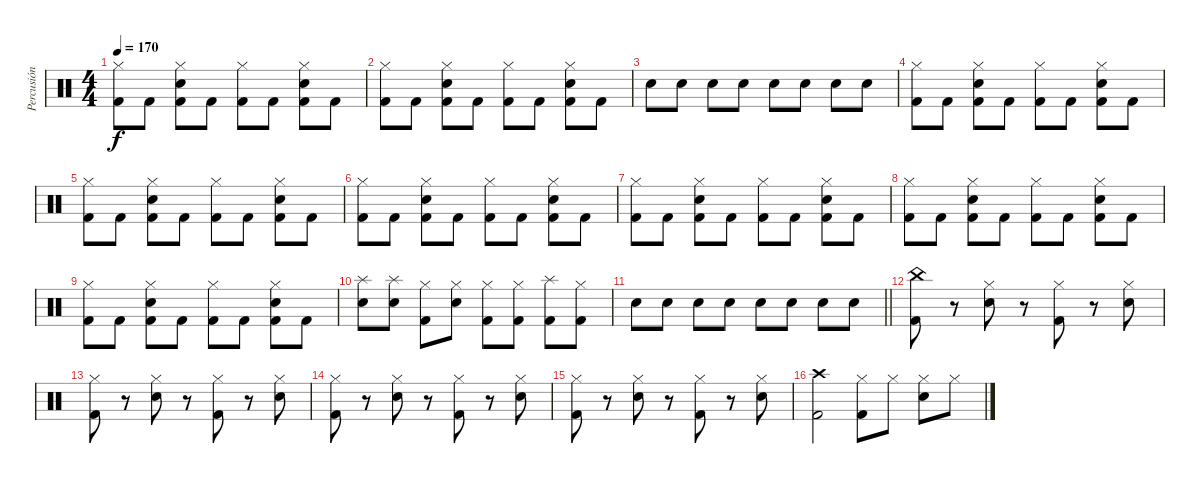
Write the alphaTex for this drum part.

\track ("Percusión" "Percusión") {instrument percussion}
\staff {score}
\articulation defaults
\ts (4 4)
\tempo 170
\clef neutral
\ks c
("Hi-Hat (closed)" "Kick (hit) 2").8{dy f} "Kick (hit) 2".8 ("Hi-Hat (closed)" "Electric Snare (hit)" "Kick (hit) 2").8 "Kick (hit) 2".8 ("Hi-Hat (closed)" "Kick (hit) 2").8 "Kick (hit) 2".8 ("Hi-Hat (closed)" "Electric Snare (hit)" "Kick (hit) 2").8 "Kick (hit) 2".8 |
("Hi-Hat (closed)" "Kick (hit) 2").8 "Kick (hit) 2".8 ("Hi-Hat (closed)" "Electric Snare (hit)" "Kick (hit) 2").8 "Kick (hit) 2".8 ("Hi-Hat (closed)" "Kick (hit) 2").8 "Kick (hit) 2".8 ("Hi-Hat (closed)" "Electric Snare (hit)" "Kick (hit) 2").8 "Kick (hit) 2".8 |
"Electric Snare (hit)".8 "Electric Snare (hit)".8 "Electric Snare (hit)".8 "Electric Snare (hit)".8 "Electric Snare (hit)".8 "Electric Snare (hit)".8 "Electric Snare (hit)".8 "Electric Snare (hit)".8 |
("Hi-Hat (closed)" "Kick (hit) 2").8 "Kick (hit) 2".8 ("Hi-Hat (closed)" "Electric Snare (hit)" "Kick (hit) 2").8 "Kick (hit) 2".8 ("Hi-Hat (closed)" "Kick (hit) 2").8 "Kick (hit) 2".8 ("Hi-Hat (closed)" "Electric Snare (hit)" "Kick (hit) 2").8 "Kick (hit) 2".8 |
("Hi-Hat (closed)" "Kick (hit) 2").8 "Kick (hit) 2".8 ("Hi-Hat (closed)" "Electric Snare (hit)" "Kick (hit) 2").8 "Kick (hit) 2".8 ("Hi-Hat (closed)" "Kick (hit) 2").8 "Kick (hit) 2".8 ("Hi-Hat (closed)" "Electric Snare (hit)" "Kick (hit) 2").8 "Kick (hit) 2".8 |
("Hi-Hat (closed)" "Kick (hit) 2").8 "Kick (hit) 2".8 ("Hi-Hat (closed)" "Electric Snare (hit)" "Kick (hit) 2").8 "Kick (hit) 2".8 ("Hi-Hat (closed)" "Kick (hit) 2").8 "Kick (hit) 2".8 ("Hi-Hat (closed)" "Electric Snare (hit)" "Kick (hit) 2").8 "Kick (hit) 2".8 |
("Hi-Hat (closed)" "Kick (hit) 2").8 "Kick (hit) 2".8 ("Hi-Hat (closed)" "Electric Snare (hit)" "Kick (hit) 2").8 "Kick (hit) 2".8 ("Hi-Hat (closed)" "Kick (hit) 2").8 "Kick (hit) 2".8 ("Hi-Hat (closed)" "Electric Snare (hit)" "Kick (hit) 2").8 "Kick (hit) 2".8 |
("Hi-Hat (closed)" "Kick (hit) 2").8 "Kick (hit) 2".8 ("Hi-Hat (closed)" "Electric Snare (hit)" "Kick (hit) 2").8 "Kick (hit) 2".8 ("Hi-Hat (closed)" "Kick (hit) 2").8 "Kick (hit) 2".8 ("Hi-Hat (closed)" "Electric Snare (hit)" "Kick (hit) 2").8 "Kick (hit) 2".8 |
("Hi-Hat (closed)" "Kick (hit) 2").8 "Kick (hit) 2".8 ("Hi-Hat (closed)" "Electric Snare (hit)" "Kick (hit) 2").8 "Kick (hit) 2".8 ("Hi-Hat (closed)" "Kick (hit) 2").8 "Kick (hit) 2".8 ("Hi-Hat (closed)" "Electric Snare (hit)" "Kick (hit) 2").8 "Kick (hit) 2".8 |
("Splash (hit)" "Electric Snare (hit)").8 ("Splash (hit)" "Electric Snare (hit)").8 ("Hi-Hat (closed)" "Kick (hit) 2").8 ("Hi-Hat (closed)" "Electric Snare (hit)").8 ("Hi-Hat (closed)" "Kick (hit) 2").8 ("Hi-Hat (closed)" "Kick (hit) 2").8 ("Splash (hit)" "Kick (hit) 2").8 ("Hi-Hat (closed)" "Kick (hit) 2").8 |
\barLineRight lightlight "Electric Snare (hit)".8 "Electric Snare (hit)".8 "Electric Snare (hit)".8 "Electric Snare (hit)".8 "Electric Snare (hit)".8 "Electric Snare (hit)".8 "Electric Snare (hit)".8 "Electric Snare (hit)".8
|
("China (hit)" "Kick (hit) 2").8 r.8 ("Hi-Hat (closed)" "Electric Snare (hit)").8 r.8 ("Hi-Hat (closed)" "Kick (hit) 2").8 r.8 ("Hi-Hat (closed)" "Electric Snare (hit)").8 |
("Hi-Hat (closed)" "Kick (hit) 2").8 r.8 ("Hi-Hat (closed)" "Electric Snare (hit)").8 r.8 ("Hi-Hat (closed)" "Kick (hit) 2").8 r.8 ("Hi-Hat (closed)" "Electric Snare (hit)").8 |
("Hi-Hat (closed)" "Kick (hit) 2").8 r.8 ("Hi-Hat (closed)" "Electric Snare (hit)").8 r.8 ("Hi-Hat (closed)" "Kick (hit) 2").8 r.8 ("Hi-Hat (closed)" "Electric Snare (hit)").8 |
("Hi-Hat (closed)" "Kick (hit) 2").8 r.8 ("Hi-Hat (closed)" "Electric Snare (hit)").8 r.8 ("Hi-Hat (closed)" "Kick (hit) 2").8 r.8 ("Hi-Hat (closed)" "Electric Snare (hit)").8 |
("Crash high (hit)" "Kick (hit) 2").2 ("Hi-Hat (closed)" "Kick (hit) 2").8 "Hi-Hat (closed)".8 ("Hi-Hat (closed)" "Electric Snare (hit)").8 "Hi-Hat (closed)".8
